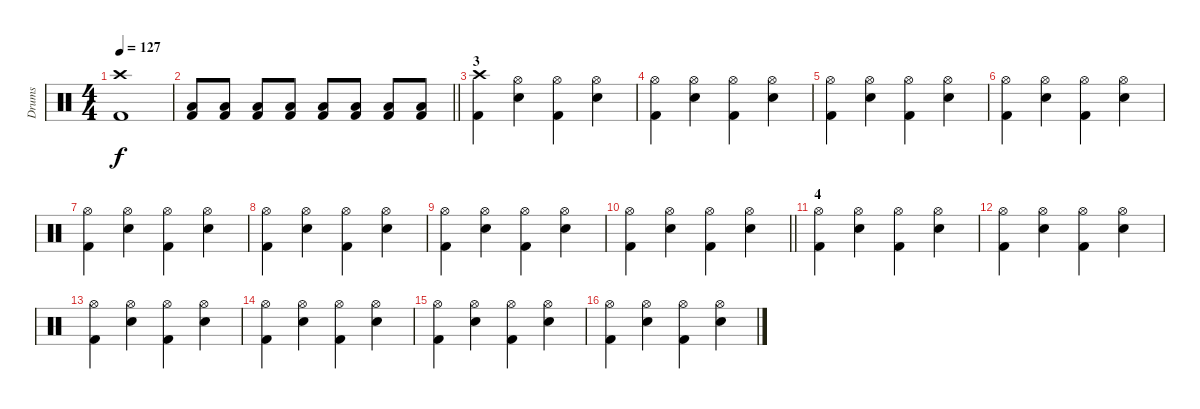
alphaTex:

\track ("Drums" "Drums") {instrument percussion}
\staff {score}
\articulation defaults
\ts (4 4)
\tempo 127
\clef neutral
\ks c
("Crash high (hit)" "Kick (hit) 2").1{dy f} |
\barLineRight lightlight
("Low Tom (hit)" "Kick (hit) 2").8 ("Low Tom (hit)" "Kick (hit) 2").8 ("Low Tom (hit)" "Kick (hit) 2").8 ("Low Tom (hit)" "Kick (hit) 2").8 ("Low Tom (hit)" "Kick (hit) 2").8 ("Low Tom (hit)" "Kick (hit) 2").8 ("Low Tom (hit)" "Kick (hit) 2").8 ("Low Tom (hit)" "Kick (hit) 2").8 |
\section ("" "3")
("Crash high (hit)" "Kick (hit) 2").4 ("Hi-Hat (open)" "Snare (hit) 2").4 ("Hi-Hat (open)" "Kick (hit) 2").4 ("Hi-Hat (open)" "Snare (hit) 2").4 |
("Hi-Hat (open)" "Kick (hit) 2").4 ("Hi-Hat (open)" "Snare (hit) 2").4 ("Hi-Hat (open)" "Kick (hit) 2").4 ("Hi-Hat (open)" "Snare (hit) 2").4 |
("Hi-Hat (open)" "Kick (hit) 2").4 ("Hi-Hat (open)" "Snare (hit) 2").4 ("Hi-Hat (open)" "Kick (hit) 2").4 ("Hi-Hat (open)" "Snare (hit) 2").4 |
("Hi-Hat (open)" "Kick (hit) 2").4 ("Hi-Hat (open)" "Snare (hit) 2").4 ("Hi-Hat (open)" "Kick (hit) 2").4 ("Hi-Hat (open)" "Snare (hit) 2").4 |
("Hi-Hat (open)" "Kick (hit) 2").4 ("Hi-Hat (open)" "Snare (hit) 2").4 ("Hi-Hat (open)" "Kick (hit) 2").4 ("Hi-Hat (open)" "Snare (hit) 2").4 |
("Hi-Hat (open)" "Kick (hit) 2").4 ("Hi-Hat (open)" "Snare (hit) 2").4 ("Hi-Hat (open)" "Kick (hit) 2").4 ("Hi-Hat (open)" "Snare (hit) 2").4 |
("Hi-Hat (open)" "Kick (hit) 2").4 ("Hi-Hat (open)" "Snare (hit) 2").4 ("Hi-Hat (open)" "Kick (hit) 2").4 ("Hi-Hat (open)" "Snare (hit) 2").4 |
\barLineRight lightlight
("Hi-Hat (open)" "Kick (hit) 2").4 ("Hi-Hat (open)" "Snare (hit) 2").4 ("Hi-Hat (open)" "Kick (hit) 2").4 ("Hi-Hat (open)" "Snare (hit) 2").4 |
\section ("" "4")
("Hi-Hat (open)" "Kick (hit) 2").4 ("Hi-Hat (open)" "Snare (hit) 2").4 ("Hi-Hat (open)" "Kick (hit) 2").4 ("Hi-Hat (open)" "Snare (hit) 2").4 |
("Hi-Hat (open)" "Kick (hit) 2").4 ("Hi-Hat (open)" "Snare (hit) 2").4 ("Hi-Hat (open)" "Kick (hit) 2").4 ("Hi-Hat (open)" "Snare (hit) 2").4 |
("Hi-Hat (open)" "Kick (hit) 2").4 ("Hi-Hat (open)" "Snare (hit) 2").4 ("Hi-Hat (open)" "Kick (hit) 2").4 ("Hi-Hat (open)" "Snare (hit) 2").4 |
("Hi-Hat (open)" "Kick (hit) 2").4 ("Hi-Hat (open)" "Snare (hit) 2").4 ("Hi-Hat (open)" "Kick (hit) 2").4 ("Hi-Hat (open)" "Snare (hit) 2").4 |
("Hi-Hat (open)" "Kick (hit) 2").4 ("Hi-Hat (open)" "Snare (hit) 2").4 ("Hi-Hat (open)" "Kick (hit) 2").4 ("Hi-Hat (open)" "Snare (hit) 2").4 |
("Hi-Hat (open)" "Kick (hit) 2").4 ("Hi-Hat (open)" "Snare (hit) 2").4 ("Hi-Hat (open)" "Kick (hit) 2").4 ("Hi-Hat (open)" "Snare (hit) 2").4
